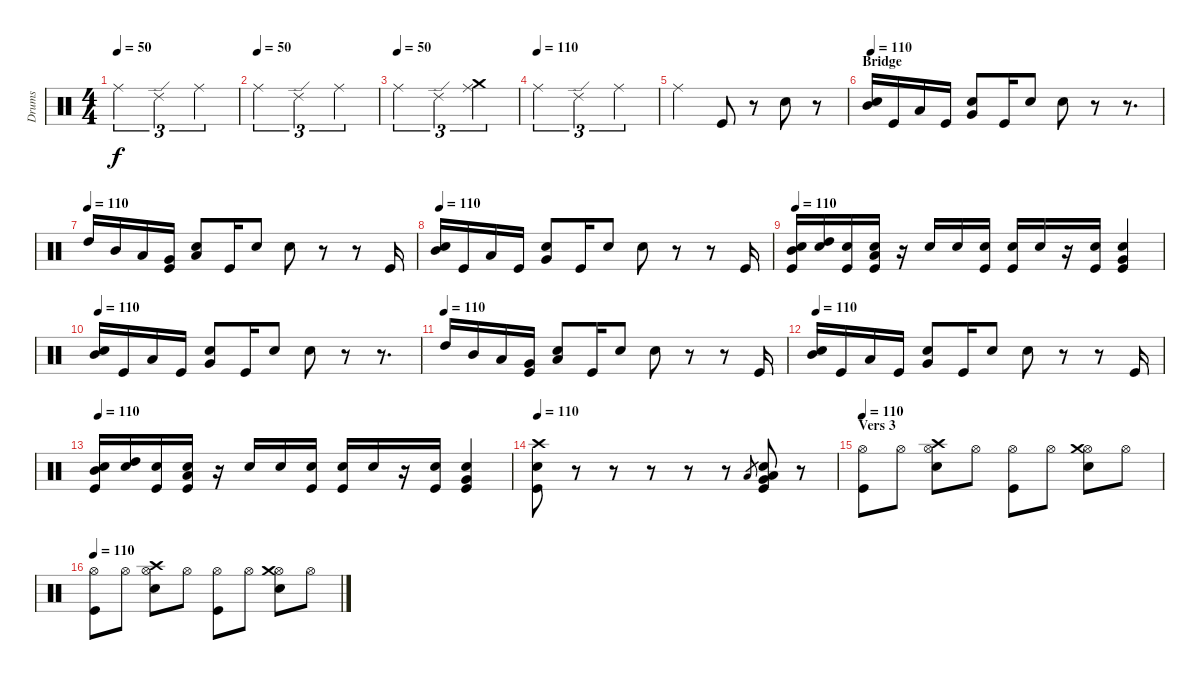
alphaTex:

\track ("Drums" "Drums") {instrument percussion}
\staff {score}
\articulation defaults
\ts (4 4)
\tempo 50
\clef neutral
\ks c "Ride (middle)".2{tu (3 2) dy f} "Ride (edge) 2".2{tu (3 2)} "Ride (middle)".2{tu (3 2)}
|
\tempo (50)
"Ride (middle)".2{tu (3 2)} "Ride (edge) 2".2{tu (3 2)} "Ride (middle)".2{tu (3 2)} |
\tempo (50)
"Ride (middle)".2{tu (3 2)} "Ride (edge) 2".2{tu (3 2)} ("Crash medium (hit)" "Ride (middle)").2{tu (3 2)} |
\tempo (110)
"Ride (middle)".2{tu (3 2)} "Ride (edge) 2".2{tu (3 2)} "Ride (middle)".2{tu (3 2)} |
"Ride (middle)".2 "Kick (hit)".8 r.8 "Snare (hit) 2".8 r.8 |
\section ("" "Bridge")
\tempo 110
("Snare (hit) 2" "Mid Tom (hit)").16 "Kick (hit)".16 "Low Tom (hit)".16 "Kick (hit)".16 ("Snare (hit) 2" "Very Low Tom (hit)").8 "Kick (hit)".16 "Snare (hit) 2".8 "Snare (hit) 2".8 r.8 r.8{d} |
\tempo (110)
"High Tom (hit)".16 "Mid Tom (hit)".16 "Low Tom (hit)".16 ("Very Low Tom (hit)" "Kick (hit)").16 ("Snare (hit) 2" "Low Floor Tom (hit)").8 "Kick (hit)".16 "Snare (hit) 2".8 "Snare (hit) 2".8 r.8 r.8 "Kick (hit)".16 |
\tempo 110
("Snare (hit) 2" "Mid Tom (hit)").16 "Kick (hit)".16 "Low Tom (hit)".16 "Kick (hit)".16 ("Snare (hit) 2" "Very Low Tom (hit)").8 "Kick (hit)".16 "Snare (hit) 2".8 "Snare (hit) 2".8 r.8 r.8 "Kick (hit)".16 |
\tempo 110
("Mid Tom (hit)" "Kick (hit)" "Snare (hit) 2").16 ("High Tom (hit)" "Snare (hit) 2").16 ("Kick (hit)" "Snare (hit) 2").16 ("Low Tom (hit)" "Kick (hit)" "Snare (hit) 2").16 r.16 "Snare (hit) 2".16 "Snare (hit) 2".16 ("Kick (hit)" "Snare (hit) 2").16 ("Kick (hit)" "Snare (hit) 2").16 "Snare (hit) 2".16 r.16 ("Kick (hit)" "Snare (hit) 2").16 ("Very Low Tom (hit)" "Kick (hit)" "Snare (hit) 2").4 |
\tempo 110
("Snare (hit) 2" "Mid Tom (hit)").16 "Kick (hit)".16 "Low Tom (hit)".16 "Kick (hit)".16 ("Snare (hit) 2" "Very Low Tom (hit)").8 "Kick (hit)".16 "Snare (hit) 2".8 "Snare (hit) 2".8 r.8 r.8{d} |
\tempo (110)
"High Tom (hit)".16 "Mid Tom (hit)".16 "Low Tom (hit)".16 ("Very Low Tom (hit)" "Kick (hit)").16 ("Snare (hit) 2" "Low Floor Tom (hit)").8 "Kick (hit)".16 "Snare (hit) 2".8 "Snare (hit) 2".8 r.8 r.8 "Kick (hit)".16 |
\tempo 110
("Snare (hit) 2" "Mid Tom (hit)").16 "Kick (hit)".16 "Low Tom (hit)".16 "Kick (hit)".16 ("Snare (hit) 2" "Very Low Tom (hit)").8 "Kick (hit)".16 "Snare (hit) 2".8 "Snare (hit) 2".8 r.8 r.8 "Kick (hit)".16 |
\tempo 110
("Mid Tom (hit)" "Kick (hit)" "Snare (hit) 2").16 ("High Tom (hit)" "Snare (hit) 2").16 ("Kick (hit)" "Snare (hit) 2").16 ("Low Tom (hit)" "Kick (hit)" "Snare (hit) 2").16 r.16 "Snare (hit) 2".16 "Snare (hit) 2".16 ("Kick (hit)" "Snare (hit) 2").16 ("Kick (hit)" "Snare (hit) 2").16 "Snare (hit) 2".16 r.16 ("Kick (hit)" "Snare (hit) 2").16 ("Very Low Tom (hit)" "Kick (hit)" "Snare (hit) 2").4 |
\tempo 110
("Crash high (hit)" "Snare (hit) 2" "Kick (hit)").8 r.8 r.8 r.8 r.8 r.8 "Low Floor Tom (hit)".8{gr} ("Low Floor Tom (hit)" "Very Low Tom (hit)" "Snare (hit) 2" "Kick (hit)").8 r.8 |
\section ("" "Vers 3")
\tempo 110
("Hi-Hat (open)" "Kick (hit)").8 "Hi-Hat (open)".8 ("Hi-Hat (open)" "Crash high (hit)" "Snare (hit) 2").8 "Hi-Hat (open)".8 ("Hi-Hat (open)" "Kick (hit)").8 "Hi-Hat (open)".8 ("Hi-Hat (open)" "Crash medium (hit)" "Snare (hit) 2").8 "Hi-Hat (open)".8 |
\tempo 110
("Hi-Hat (open)" "Kick (hit)").8 "Hi-Hat (open)".8 ("Hi-Hat (open)" "Crash high (hit)" "Snare (hit) 2").8 "Hi-Hat (open)".8 ("Hi-Hat (open)" "Kick (hit)").8 "Hi-Hat (open)".8 ("Hi-Hat (open)" "Crash medium (hit)" "Snare (hit) 2").8 "Hi-Hat (open)".8
